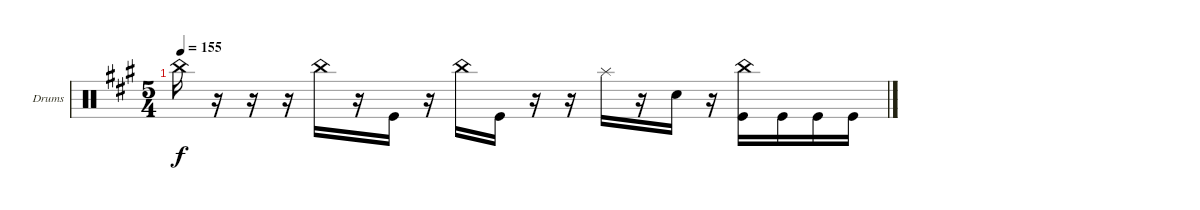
\bracketExtendMode groupsimilarinstruments
\firstSystemTrackNameOrientation horizontal
\otherSystemsTrackNameOrientation horizontal
\track ("Drumkit" "Drums") {instrument percussion}
\staff {score}
\articulation defaults
\ts (5 4)
\tempo 155
\clef neutral
\ks a "China (hit)".16{dy f}
r.16 r.16 r.16 "China (hit)".16 r.16 "Kick (hit)".16 r.16 "China (hit)".16 "Kick (hit)".16 r.16 r.16 "Splash (hit)".16 r.16 "Snare (hit) 2".16 r.16 ("China (hit)" "Kick (hit)").16 "Kick (hit)".16 "Kick (hit)".16 "Kick (hit)".16
